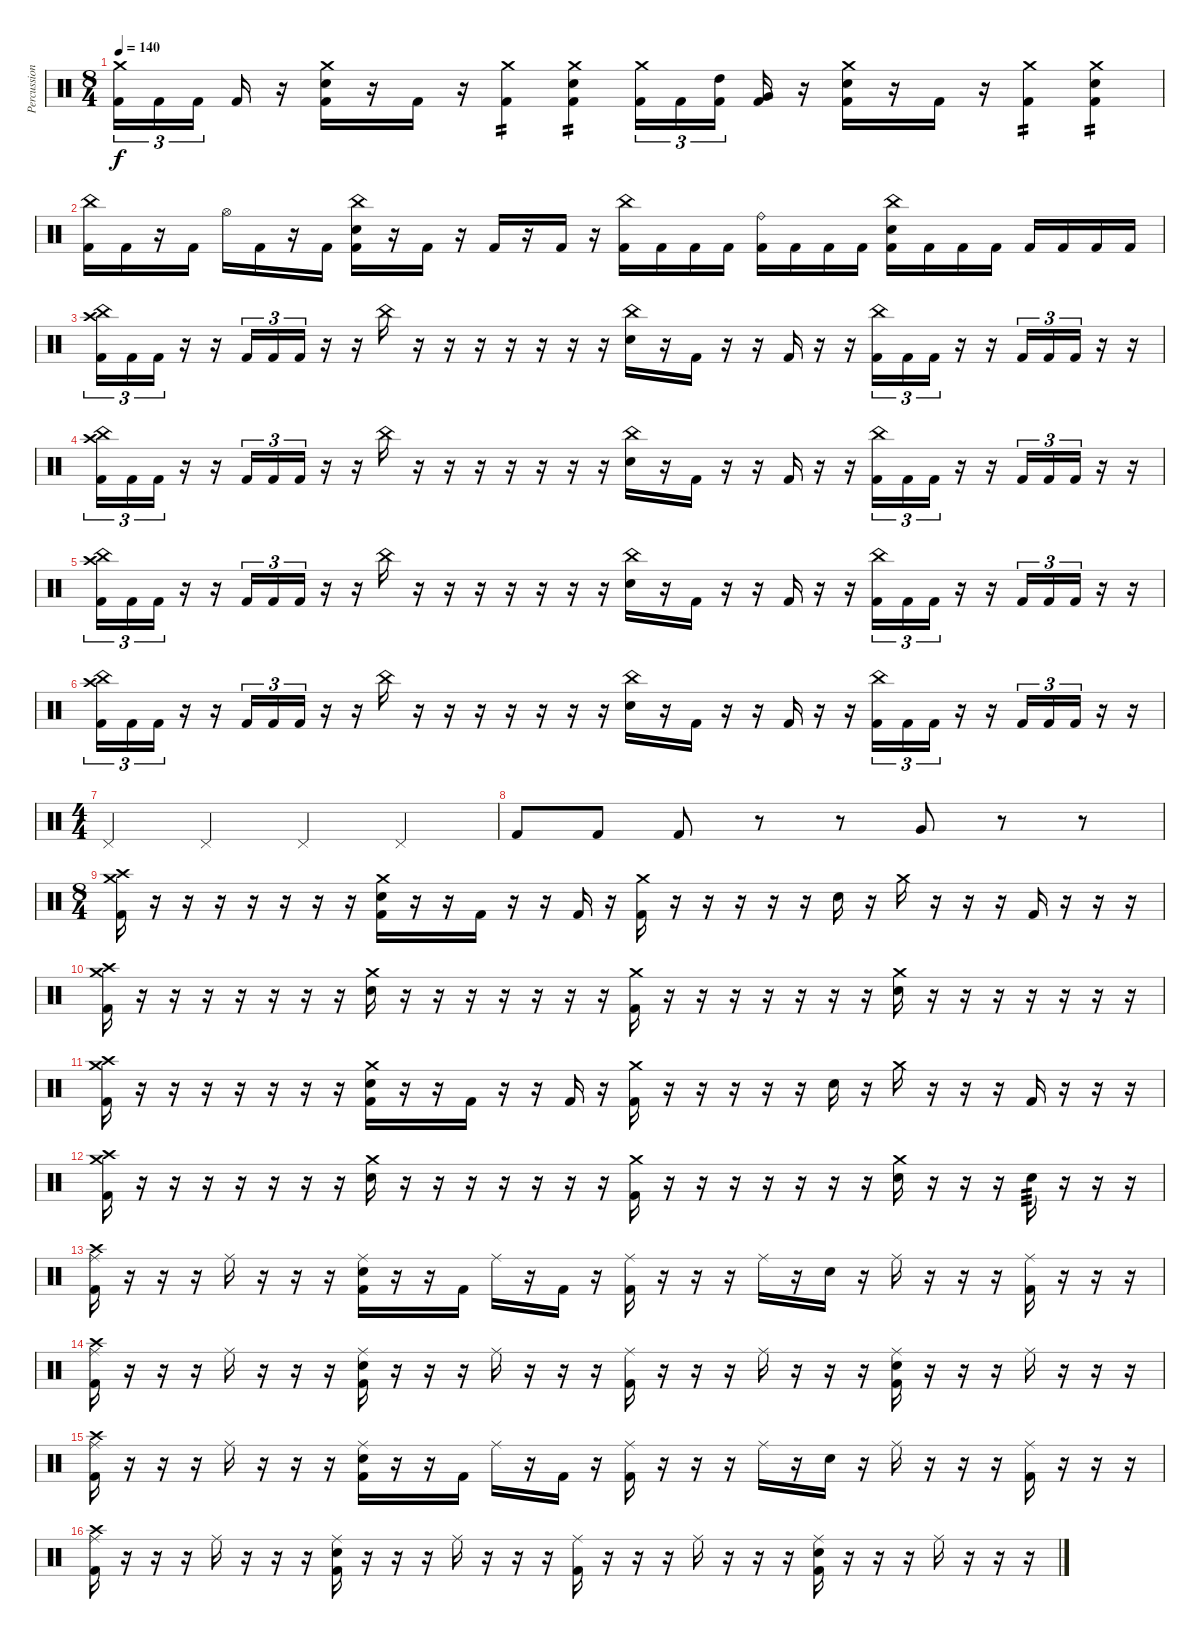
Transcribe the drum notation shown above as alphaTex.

\track ("Percussion" "Percussion") {solo instrument percussion}
\staff {score}
\articulation defaults
\ts (8 4)
\tempo 140
\clef neutral
\ks c
("Crash medium (hit)" "Kick (hit) 2").16{tu (3 2) dy f} "Kick (hit) 2".16{tu (3 2)} "Kick (hit) 2".16{tu (3 2) beam splitsecondary} "Kick (hit) 2".16 r.16 ("Crash medium (hit)" "Electric Snare (hit)" "Kick (hit) 2").16 r.16 "Kick (hit) 2".16 r.16 ("Crash medium (hit)" "Kick (hit) 2").4{tp 2} ("Crash medium (hit)" "Electric Snare (hit)" "Kick (hit) 2").4{tp 2} ("Crash medium (hit)" "Kick (hit) 2").16{tu (3 2)} "Kick (hit) 2".16{tu (3 2)} ("High Tom (hit)" "Kick (hit) 2").16{tu (3 2) beam splitsecondary} ("Very Low Tom (hit)" "Kick (hit) 2").16 r.16 ("Crash medium (hit)" "Electric Snare (hit)" "Kick (hit) 2").16 r.16 "Kick (hit) 2".16 r.16 ("Crash medium (hit)" "Kick (hit) 2").4{tp 2} ("Crash medium (hit)" "Electric Snare (hit)" "Kick (hit) 2").4{tp 2} |
("China (hit)" "Kick (hit) 2").16 "Kick (hit) 2".16 r.16 "Kick (hit) 2".16 "Hi-Hat (open)".16 "Kick (hit) 2".16 r.16 "Kick (hit) 2".16 ("China (hit)" "Electric Snare (hit)" "Kick (hit) 2").16 r.16 "Kick (hit) 2".16 r.16 "Kick (hit) 2".16 r.16 "Kick (hit) 2".16 r.16 ("China (hit)" "Kick (hit) 2").16 "Kick (hit) 2".16 "Kick (hit) 2".16 "Kick (hit) 2".16 ("Ride (bell)" "Kick (hit) 2").16 "Kick (hit) 2".16 "Kick (hit) 2".16 "Kick (hit) 2".16 ("China (hit)" "Electric Snare (hit)" "Kick (hit) 2").16 "Kick (hit) 2".16 "Kick (hit) 2".16 "Kick (hit) 2".16 "Kick (hit) 2".16 "Kick (hit) 2".16 "Kick (hit) 2".16 "Kick (hit) 2".16 |
("China (hit)" "Crash high (hit)" "Kick (hit) 2").16{tu (3 2)} "Kick (hit) 2".16{tu (3 2)} "Kick (hit) 2".16{tu (3 2)} r.16 r.16 "Kick (hit) 2".16{tu (3 2)} "Kick (hit) 2".16{tu (3 2)} "Kick (hit) 2".16{tu (3 2)} r.16 r.16 "China (hit)".16 r.16 r.16 r.16 r.16 r.16 r.16 r.16 ("China (hit)" "Electric Snare (hit)").16 r.16 "Kick (hit) 2".16 r.16 r.16 "Kick (hit) 2".16 r.16 r.16 ("China (hit)" "Kick (hit) 2").16{tu (3 2)} "Kick (hit) 2".16{tu (3 2)} "Kick (hit) 2".16{tu (3 2)} r.16 r.16 "Kick (hit) 2".16{tu (3 2)} "Kick (hit) 2".16{tu (3 2)} "Kick (hit) 2".16{tu (3 2)} r.16 r.16 |
("China (hit)" "Crash high (hit)" "Kick (hit) 2").16{tu (3 2)} "Kick (hit) 2".16{tu (3 2)} "Kick (hit) 2".16{tu (3 2)} r.16 r.16 "Kick (hit) 2".16{tu (3 2)} "Kick (hit) 2".16{tu (3 2)} "Kick (hit) 2".16{tu (3 2)} r.16 r.16 "China (hit)".16 r.16 r.16 r.16 r.16 r.16 r.16 r.16 ("China (hit)" "Electric Snare (hit)").16 r.16 "Kick (hit) 2".16 r.16 r.16 "Kick (hit) 2".16 r.16 r.16 ("China (hit)" "Kick (hit) 2").16{tu (3 2)} "Kick (hit) 2".16{tu (3 2)} "Kick (hit) 2".16{tu (3 2)} r.16 r.16 "Kick (hit) 2".16{tu (3 2)} "Kick (hit) 2".16{tu (3 2)} "Kick (hit) 2".16{tu (3 2)} r.16 r.16 |
("China (hit)" "Crash high (hit)" "Kick (hit) 2").16{tu (3 2)} "Kick (hit) 2".16{tu (3 2)} "Kick (hit) 2".16{tu (3 2)} r.16 r.16 "Kick (hit) 2".16{tu (3 2)} "Kick (hit) 2".16{tu (3 2)} "Kick (hit) 2".16{tu (3 2)} r.16 r.16 "China (hit)".16 r.16 r.16 r.16 r.16 r.16 r.16 r.16 ("China (hit)" "Electric Snare (hit)").16 r.16 "Kick (hit) 2".16 r.16 r.16 "Kick (hit) 2".16 r.16 r.16 ("China (hit)" "Kick (hit) 2").16{tu (3 2)} "Kick (hit) 2".16{tu (3 2)} "Kick (hit) 2".16{tu (3 2)} r.16 r.16 "Kick (hit) 2".16{tu (3 2)} "Kick (hit) 2".16{tu (3 2)} "Kick (hit) 2".16{tu (3 2)} r.16 r.16 |
("China (hit)" "Crash high (hit)" "Kick (hit) 2").16{tu (3 2)} "Kick (hit) 2".16{tu (3 2)} "Kick (hit) 2".16{tu (3 2)} r.16 r.16 "Kick (hit) 2".16{tu (3 2)} "Kick (hit) 2".16{tu (3 2)} "Kick (hit) 2".16{tu (3 2)} r.16 r.16 "China (hit)".16 r.16 r.16 r.16 r.16 r.16 r.16 r.16 ("China (hit)" "Electric Snare (hit)").16 r.16 "Kick (hit) 2".16 r.16 r.16 "Kick (hit) 2".16 r.16 r.16 ("China (hit)" "Kick (hit) 2").16{tu (3 2)} "Kick (hit) 2".16{tu (3 2)} "Kick (hit) 2".16{tu (3 2)} r.16 r.16 "Kick (hit) 2".16{tu (3 2)} "Kick (hit) 2".16{tu (3 2)} "Kick (hit) 2".16{tu (3 2)} r.16 r.16 |
\ts (4 4)
"Pedal Hi-Hat (hit)".4 "Pedal Hi-Hat (hit)".4 "Pedal Hi-Hat (hit)".4 "Pedal Hi-Hat (hit)".4 |
"Kick (hit) 2".8 "Kick (hit) 2".8 "Kick (hit) 2".8 r.8 r.8 "Very Low Tom (hit)".8 r.8 r.8 |
\ts (8 4)
("Crash medium (hit)" "Crash high (hit)" "Kick (hit) 2").16 r.16 r.16 r.16 r.16 r.16 r.16 r.16 ("Crash medium (hit)" "Electric Snare (hit)" "Kick (hit) 2").16 r.16 r.16 "Kick (hit) 2".16 r.16 r.16 "Kick (hit) 2".16 r.16 ("Crash medium (hit)" "Kick (hit) 2").16 r.16 r.16 r.16 r.16 r.16 "Electric Snare (hit)".16 r.16 "Crash medium (hit)".16 r.16 r.16 r.16 "Kick (hit) 2".16 r.16 r.16 r.16 |
("Crash medium (hit)" "Crash high (hit)" "Kick (hit) 2").16 r.16 r.16 r.16 r.16 r.16 r.16 r.16 ("Crash medium (hit)" "Electric Snare (hit)").16 r.16 r.16 r.16 r.16 r.16 r.16 r.16 ("Crash medium (hit)" "Kick (hit) 2").16 r.16 r.16 r.16 r.16 r.16 r.16 r.16 ("Crash medium (hit)" "Electric Snare (hit)").16 r.16 r.16 r.16 r.16 r.16 r.16 r.16 |
("Crash medium (hit)" "Crash high (hit)" "Kick (hit) 2").16 r.16 r.16 r.16 r.16 r.16 r.16 r.16 ("Crash medium (hit)" "Electric Snare (hit)" "Kick (hit) 2").16 r.16 r.16 "Kick (hit) 2".16 r.16 r.16 "Kick (hit) 2".16 r.16 ("Crash medium (hit)" "Kick (hit) 2").16 r.16 r.16 r.16 r.16 r.16 "Electric Snare (hit)".16 r.16 "Crash medium (hit)".16 r.16 r.16 r.16 "Kick (hit) 2".16 r.16 r.16 r.16 |
("Crash medium (hit)" "Crash high (hit)" "Kick (hit) 2").16 r.16 r.16 r.16 r.16 r.16 r.16 r.16 ("Crash medium (hit)" "Electric Snare (hit)").16 r.16 r.16 r.16 r.16 r.16 r.16 r.16 ("Crash medium (hit)" "Kick (hit) 2").16 r.16 r.16 r.16 r.16 r.16 r.16 r.16 ("Crash medium (hit)" "Electric Snare (hit)").16 r.16 r.16 r.16 "Electric Snare (hit)".16{tp 3} r.16 r.16 r.16 |
("Ride (middle)" "Crash high (hit)" "Kick (hit) 2").16 r.16 r.16 r.16 "Ride (middle)".16 r.16 r.16 r.16 ("Ride (middle)" "Electric Snare (hit)" "Kick (hit) 2").16 r.16 r.16 "Kick (hit) 2".16 "Ride (middle)".16 r.16 "Kick (hit) 2".16 r.16 ("Ride (middle)" "Kick (hit) 2").16 r.16 r.16 r.16 "Ride (middle)".16 r.16 "Electric Snare (hit)".16 r.16 "Ride (middle)".16 r.16 r.16 r.16 ("Ride (middle)" "Kick (hit) 2").16 r.16 r.16 r.16 |
("Ride (middle)" "Crash high (hit)" "Kick (hit) 2").16 r.16 r.16 r.16 "Ride (middle)".16 r.16 r.16 r.16 ("Ride (middle)" "Electric Snare (hit)" "Kick (hit) 2").16 r.16 r.16 r.16 "Ride (middle)".16 r.16 r.16 r.16 ("Ride (middle)" "Kick (hit) 2").16 r.16 r.16 r.16 "Ride (middle)".16 r.16 r.16 r.16 ("Ride (middle)" "Electric Snare (hit)" "Kick (hit) 2").16 r.16 r.16 r.16 "Ride (middle)".16 r.16 r.16 r.16 |
("Ride (middle)" "Crash high (hit)" "Kick (hit) 2").16 r.16 r.16 r.16 "Ride (middle)".16 r.16 r.16 r.16 ("Ride (middle)" "Electric Snare (hit)" "Kick (hit) 2").16 r.16 r.16 "Kick (hit) 2".16 "Ride (middle)".16 r.16 "Kick (hit) 2".16 r.16 ("Ride (middle)" "Kick (hit) 2").16 r.16 r.16 r.16 "Ride (middle)".16 r.16 "Electric Snare (hit)".16 r.16 "Ride (middle)".16 r.16 r.16 r.16 ("Ride (middle)" "Kick (hit) 2").16 r.16 r.16 r.16 |
("Ride (middle)" "Crash high (hit)" "Kick (hit) 2").16 r.16 r.16 r.16 "Ride (middle)".16 r.16 r.16 r.16 ("Ride (middle)" "Electric Snare (hit)" "Kick (hit) 2").16 r.16 r.16 r.16 "Ride (middle)".16 r.16 r.16 r.16 ("Ride (middle)" "Kick (hit) 2").16 r.16 r.16 r.16 "Ride (middle)".16 r.16 r.16 r.16 ("Ride (middle)" "Electric Snare (hit)" "Kick (hit) 2").16 r.16 r.16 r.16 "Ride (middle)".16 r.16 r.16 r.16
